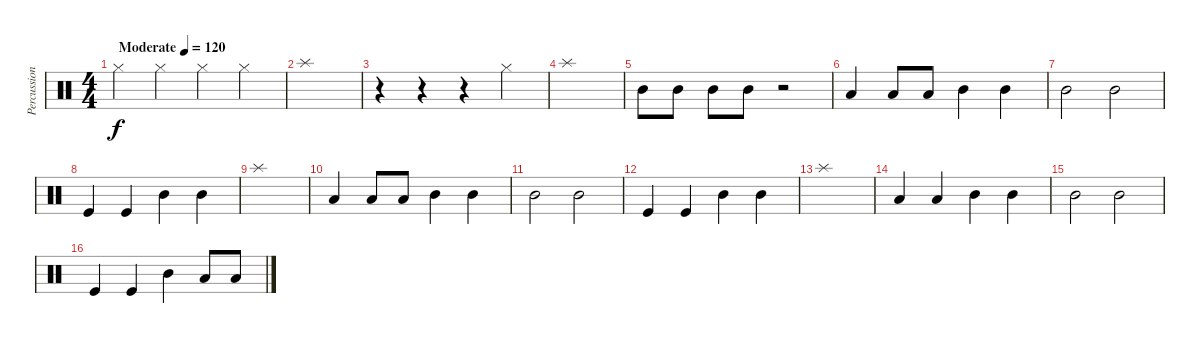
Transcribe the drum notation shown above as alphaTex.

\track ("Percussion" "Percussion") {instrument percussion}
\staff {score}
\articulation defaults
\ts (4 4)
\tempo (120 "Moderate")
\clef neutral
\ks c "Hi-Hat (closed)".4{dy f} "Hi-Hat (closed)".4 "Hi-Hat (closed)".4 "Hi-Hat (closed)".4
|
"Splash (hit)".1 |
r.4 r.4 r.4 "Hi-Hat (closed)".4 |
"Splash (hit)".1 |
"Mid Tom (hit)".8 "Mid Tom (hit)".8 "Mid Tom (hit)".8 "Mid Tom (hit)".8 r.2 |
"Low Tom (hit)".4 "Low Tom (hit)".8 "Low Tom (hit)".8 "Mid Tom (hit)".4 "Mid Tom (hit)".4 |
"Mid Tom (hit)".2 "Mid Tom (hit)".2 |
"Kick (hit)".4 "Kick (hit)".4 "Mid Tom (hit)".4 "Mid Tom (hit)".4 |
"Splash (hit)".1 |
"Low Tom (hit)".4 "Low Tom (hit)".8 "Low Tom (hit)".8 "Mid Tom (hit)".4 "Mid Tom (hit)".4 |
"Mid Tom (hit)".2 "Mid Tom (hit)".2 |
"Kick (hit)".4 "Kick (hit)".4 "Mid Tom (hit)".4 "Mid Tom (hit)".4 |
"Splash (hit)".1 |
"Low Tom (hit)".4 "Low Tom (hit)".4 "Mid Tom (hit)".4 "Mid Tom (hit)".4 |
"Mid Tom (hit)".2 "Mid Tom (hit)".2 |
"Kick (hit)".4 "Kick (hit)".4 "Mid Tom (hit)".4 "Low Tom (hit)".8 "Low Tom (hit)".8
